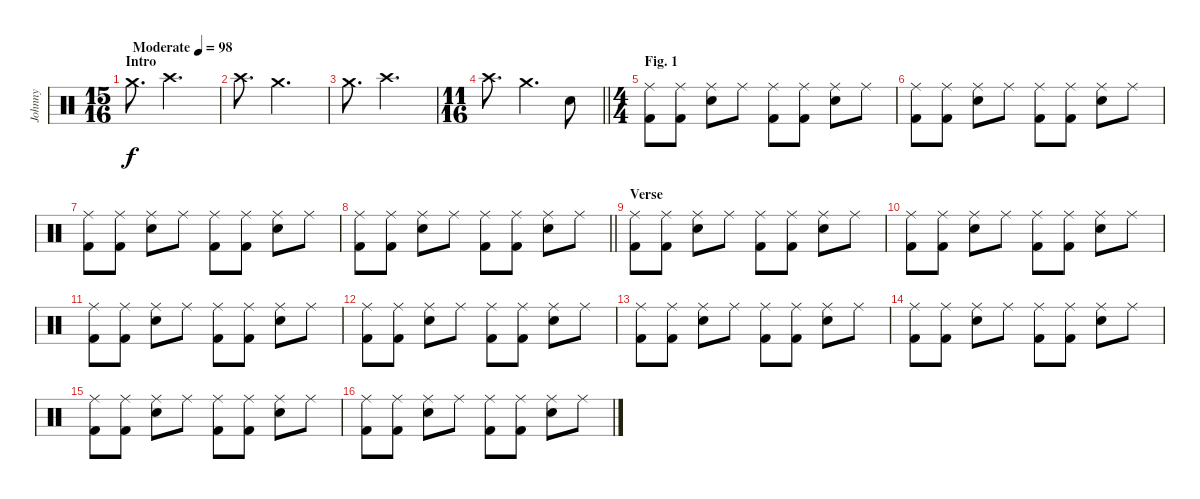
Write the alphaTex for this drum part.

\track ("Johnny" "Johnny") {instrument percussion}
\staff {score}
\articulation defaults
\ts (15 16)
\section ("" "Intro")
\tempo (98 "Moderate")
\clef neutral
\ks c "Crash medium (hit)".8{d dy f} "Crash high (hit)".2{d}
|
"Crash high (hit)".8{d} "Crash medium (hit)".2{d} |
"Crash medium (hit)".8{d} "Crash high (hit)".2{d} |
\ts (11 16)
\barLineRight lightlight "Crash high (hit)".8{d} "Crash medium (hit)".4{d} "Electric Snare (hit)".8
|
\ts (4 4)
\section ("" "Fig. 1")
("Kick (hit) 2" "Ride (middle)").8 ("Kick (hit) 2" "Ride (middle)").8 ("Electric Snare (hit)" "Ride (middle)").8 "Ride (middle)".8 ("Kick (hit) 2" "Ride (middle)").8 ("Kick (hit) 2" "Ride (middle)").8 ("Electric Snare (hit)" "Ride (middle)").8 "Ride (middle)".8 |
("Kick (hit) 2" "Ride (middle)").8 ("Kick (hit) 2" "Ride (middle)").8 ("Electric Snare (hit)" "Ride (middle)").8 "Ride (middle)".8 ("Kick (hit) 2" "Ride (middle)").8 ("Kick (hit) 2" "Ride (middle)").8 ("Electric Snare (hit)" "Ride (middle)").8 "Ride (middle)".8 |
("Kick (hit) 2" "Ride (middle)").8 ("Kick (hit) 2" "Ride (middle)").8 ("Electric Snare (hit)" "Ride (middle)").8 "Ride (middle)".8 ("Kick (hit) 2" "Ride (middle)").8 ("Kick (hit) 2" "Ride (middle)").8 ("Electric Snare (hit)" "Ride (middle)").8 "Ride (middle)".8 |
\barLineRight lightlight
("Kick (hit) 2" "Ride (middle)").8 ("Kick (hit) 2" "Ride (middle)").8 ("Electric Snare (hit)" "Ride (middle)").8 "Ride (middle)".8 ("Kick (hit) 2" "Ride (middle)").8 ("Kick (hit) 2" "Ride (middle)").8 ("Electric Snare (hit)" "Ride (middle)").8 "Ride (middle)".8 |
\section ("" "Verse")
("Kick (hit) 2" "Ride (middle)").8 ("Kick (hit) 2" "Ride (middle)").8 ("Electric Snare (hit)" "Ride (middle)").8 "Ride (middle)".8 ("Kick (hit) 2" "Ride (middle)").8 ("Kick (hit) 2" "Ride (middle)").8 ("Electric Snare (hit)" "Ride (middle)").8 "Ride (middle)".8 |
("Kick (hit) 2" "Ride (middle)").8 ("Kick (hit) 2" "Ride (middle)").8 ("Electric Snare (hit)" "Ride (middle)").8 "Ride (middle)".8 ("Kick (hit) 2" "Ride (middle)").8 ("Kick (hit) 2" "Ride (middle)").8 ("Electric Snare (hit)" "Ride (middle)").8 "Ride (middle)".8 |
("Kick (hit) 2" "Ride (middle)").8 ("Kick (hit) 2" "Ride (middle)").8 ("Electric Snare (hit)" "Ride (middle)").8 "Ride (middle)".8 ("Kick (hit) 2" "Ride (middle)").8 ("Kick (hit) 2" "Ride (middle)").8 ("Electric Snare (hit)" "Ride (middle)").8 "Ride (middle)".8 |
("Kick (hit) 2" "Ride (middle)").8 ("Kick (hit) 2" "Ride (middle)").8 ("Electric Snare (hit)" "Ride (middle)").8 "Ride (middle)".8 ("Kick (hit) 2" "Ride (middle)").8 ("Kick (hit) 2" "Ride (middle)").8 ("Electric Snare (hit)" "Ride (middle)").8 "Ride (middle)".8 |
("Kick (hit) 2" "Ride (middle)").8 ("Kick (hit) 2" "Ride (middle)").8 ("Electric Snare (hit)" "Ride (middle)").8 "Ride (middle)".8 ("Kick (hit) 2" "Ride (middle)").8 ("Kick (hit) 2" "Ride (middle)").8 ("Electric Snare (hit)" "Ride (middle)").8 "Ride (middle)".8 |
("Kick (hit) 2" "Ride (middle)").8 ("Kick (hit) 2" "Ride (middle)").8 ("Electric Snare (hit)" "Ride (middle)").8 "Ride (middle)".8 ("Kick (hit) 2" "Ride (middle)").8 ("Kick (hit) 2" "Ride (middle)").8 ("Electric Snare (hit)" "Ride (middle)").8 "Ride (middle)".8 |
("Kick (hit) 2" "Ride (middle)").8 ("Kick (hit) 2" "Ride (middle)").8 ("Electric Snare (hit)" "Ride (middle)").8 "Ride (middle)".8 ("Kick (hit) 2" "Ride (middle)").8 ("Kick (hit) 2" "Ride (middle)").8 ("Electric Snare (hit)" "Ride (middle)").8 "Ride (middle)".8 |
("Kick (hit) 2" "Ride (middle)").8 ("Kick (hit) 2" "Ride (middle)").8 ("Electric Snare (hit)" "Ride (middle)").8 "Ride (middle)".8 ("Kick (hit) 2" "Ride (middle)").8 ("Kick (hit) 2" "Ride (middle)").8 ("Electric Snare (hit)" "Ride (middle)").8 "Ride (middle)".8
